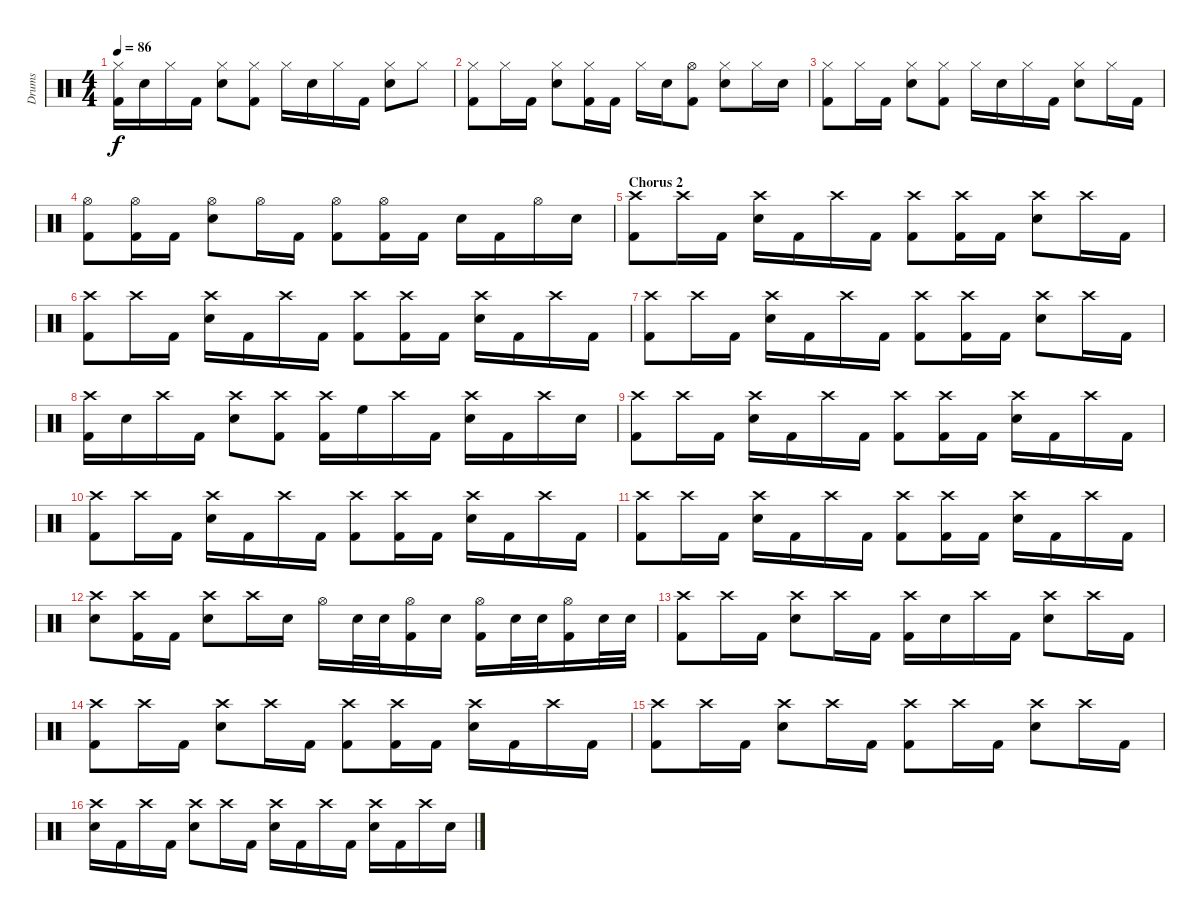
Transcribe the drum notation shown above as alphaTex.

\track ("Drums" "Drums") {instrument percussion}
\staff {score}
\articulation defaults
\ts (4 4)
\tempo 86
\clef neutral
\ks c
("Hi-Hat (closed)" "Kick (hit) 2").16{dy f} "Electric Snare (hit)".16 "Hi-Hat (closed)".16 "Kick (hit) 2".16 ("Hi-Hat (closed)" "Electric Snare (hit)").8 ("Hi-Hat (closed)" "Kick (hit) 2").8 "Hi-Hat (closed)".16 "Electric Snare (hit)".16 "Hi-Hat (closed)".16 "Kick (hit) 2".16 ("Hi-Hat (closed)" "Electric Snare (hit)").8 "Hi-Hat (closed)".8 |
("Hi-Hat (closed)" "Kick (hit) 2").8 "Hi-Hat (closed)".16 "Kick (hit) 2".16 ("Hi-Hat (closed)" "Electric Snare (hit)").8 ("Hi-Hat (closed)" "Kick (hit) 2").16 "Kick (hit) 2".16 "Hi-Hat (closed)".16 "Electric Snare (hit)".16 ("Hi-Hat (open)" "Kick (hit) 2").8 ("Hi-Hat (closed)" "Electric Snare (hit)").8 "Hi-Hat (closed)".16 "Electric Snare (hit)".16 |
("Hi-Hat (closed)" "Kick (hit) 2").8 "Hi-Hat (closed)".16 "Kick (hit) 2".16 ("Hi-Hat (closed)" "Electric Snare (hit)").8 ("Hi-Hat (closed)" "Kick (hit) 2").8 "Hi-Hat (closed)".16 "Electric Snare (hit)".16 "Hi-Hat (closed)".16 "Kick (hit) 2".16 ("Hi-Hat (closed)" "Electric Snare (hit)").8 "Hi-Hat (closed)".16 "Kick (hit) 2".16 |
("Hi-Hat (open)" "Kick (hit) 2").8 ("Hi-Hat (open)" "Kick (hit) 2").16 "Kick (hit) 2".16 ("Hi-Hat (open)" "Electric Snare (hit)").8 "Hi-Hat (open)".16 "Kick (hit) 2".16 ("Hi-Hat (open)" "Kick (hit) 2").8 ("Hi-Hat (open)" "Kick (hit) 2").16 "Kick (hit) 2".16 "Electric Snare (hit)".16 "Kick (hit) 2".16 "Hi-Hat (open)".16 "Electric Snare (hit)".16 |
\section ("" "Chorus 2")
("Crash high (hit)" "Kick (hit) 2").8 "Crash high (hit)".16 "Kick (hit) 2".16 ("Crash high (hit)" "Electric Snare (hit)").16 "Kick (hit) 2".16 "Crash high (hit)".16 "Kick (hit) 2".16 ("Crash high (hit)" "Kick (hit) 2").8 ("Crash high (hit)" "Kick (hit) 2").16 "Kick (hit) 2".16 ("Crash high (hit)" "Electric Snare (hit)").8 "Crash high (hit)".16 "Kick (hit) 2".16 |
("Crash high (hit)" "Kick (hit) 2").8 "Crash high (hit)".16 "Kick (hit) 2".16 ("Crash high (hit)" "Electric Snare (hit)").16 "Kick (hit) 2".16 "Crash high (hit)".16 "Kick (hit) 2".16 ("Crash high (hit)" "Kick (hit) 2").8 ("Crash high (hit)" "Kick (hit) 2").16 "Kick (hit) 2".16 ("Crash high (hit)" "Electric Snare (hit)").16 "Kick (hit) 2".16 "Crash high (hit)".16 "Kick (hit) 2".16 |
("Crash high (hit)" "Kick (hit) 2").8 "Crash high (hit)".16 "Kick (hit) 2".16 ("Crash high (hit)" "Electric Snare (hit)").16 "Kick (hit) 2".16 "Crash high (hit)".16 "Kick (hit) 2".16 ("Crash high (hit)" "Kick (hit) 2").8 ("Crash high (hit)" "Kick (hit) 2").16 "Kick (hit) 2".16 ("Crash high (hit)" "Electric Snare (hit)").8 "Crash high (hit)".16 "Kick (hit) 2".16 |
("Crash high (hit)" "Kick (hit) 2").16 "Electric Snare (hit)".16 "Crash high (hit)".16 "Kick (hit) 2".16 ("Crash high (hit)" "Electric Snare (hit)").8 ("Crash high (hit)" "Kick (hit) 2").8 ("Crash high (hit)" "Kick (hit) 2").16 "High Floor Tom (hit)".16 "Crash high (hit)".16 "Kick (hit) 2".16 ("Crash high (hit)" "Electric Snare (hit)").16 "Kick (hit) 2".16 "Crash high (hit)".16 "Electric Snare (hit)".16 |
("Crash high (hit)" "Kick (hit) 2").8 "Crash high (hit)".16 "Kick (hit) 2".16 ("Crash high (hit)" "Electric Snare (hit)").16 "Kick (hit) 2".16 "Crash high (hit)".16 "Kick (hit) 2".16 ("Crash high (hit)" "Kick (hit) 2").8 ("Crash high (hit)" "Kick (hit) 2").16 "Kick (hit) 2".16 ("Crash high (hit)" "Electric Snare (hit)").16 "Kick (hit) 2".16 "Crash high (hit)".16 "Kick (hit) 2".16 |
("Crash high (hit)" "Kick (hit) 2").8 "Crash high (hit)".16 "Kick (hit) 2".16 ("Crash high (hit)" "Electric Snare (hit)").16 "Kick (hit) 2".16 "Crash high (hit)".16 "Kick (hit) 2".16 ("Crash high (hit)" "Kick (hit) 2").8 ("Crash high (hit)" "Kick (hit) 2").16 "Kick (hit) 2".16 ("Crash high (hit)" "Electric Snare (hit)").16 "Kick (hit) 2".16 "Crash high (hit)".16 "Kick (hit) 2".16 |
("Crash high (hit)" "Kick (hit) 2").8 "Crash high (hit)".16 "Kick (hit) 2".16 ("Crash high (hit)" "Electric Snare (hit)").16 "Kick (hit) 2".16 "Crash high (hit)".16 "Kick (hit) 2".16 ("Crash high (hit)" "Kick (hit) 2").8 ("Crash high (hit)" "Kick (hit) 2").16 "Kick (hit) 2".16 ("Crash high (hit)" "Electric Snare (hit)").16 "Kick (hit) 2".16 "Crash high (hit)".16 "Kick (hit) 2".16 |
("Crash high (hit)" "Electric Snare (hit)").8 ("Crash high (hit)" "Kick (hit) 2").16 "Kick (hit) 2".16 ("Crash high (hit)" "Electric Snare (hit)").8 "Crash high (hit)".16 "Electric Snare (hit)".16 "Hi-Hat (open)".16 "Electric Snare (hit)".32 "Electric Snare (hit)".32 ("Hi-Hat (open)" "Kick (hit) 2").16 "Electric Snare (hit)".16 ("Hi-Hat (open)" "Kick (hit) 2").16 "Electric Snare (hit)".32 "Electric Snare (hit)".32 ("Hi-Hat (open)" "Kick (hit) 2").16 "Electric Snare (hit)".32 "Electric Snare (hit)".32 |
("Crash high (hit)" "Kick (hit) 2").8 "Crash high (hit)".16 "Kick (hit) 2".16 ("Crash high (hit)" "Electric Snare (hit)").8 "Crash high (hit)".16 "Kick (hit) 2".16 ("Crash high (hit)" "Kick (hit) 2").16 "Electric Snare (hit)".16 "Crash high (hit)".16 "Kick (hit) 2".16 ("Crash high (hit)" "Electric Snare (hit)").8 "Crash high (hit)".16 "Kick (hit) 2".16 |
("Crash high (hit)" "Kick (hit) 2").8 "Crash high (hit)".16 "Kick (hit) 2".16 ("Crash high (hit)" "Electric Snare (hit)").8 "Crash high (hit)".16 "Kick (hit) 2".16 ("Crash high (hit)" "Kick (hit) 2").8 ("Crash high (hit)" "Kick (hit) 2").16 "Kick (hit) 2".16 ("Crash high (hit)" "Electric Snare (hit)").16 "Kick (hit) 2".16 "Crash high (hit)".16 "Kick (hit) 2".16 |
("Crash high (hit)" "Kick (hit) 2").8 "Crash high (hit)".16 "Kick (hit) 2".16 ("Crash high (hit)" "Electric Snare (hit)").8 "Crash high (hit)".16 "Kick (hit) 2".16 ("Crash high (hit)" "Kick (hit) 2").8 "Crash high (hit)".16 "Kick (hit) 2".16 ("Crash high (hit)" "Electric Snare (hit)").8 "Crash high (hit)".16 "Kick (hit) 2".16 |
("Crash high (hit)" "Electric Snare (hit)").16 "Kick (hit) 2".16 "Crash high (hit)".16 "Kick (hit) 2".16 ("Crash high (hit)" "Electric Snare (hit)").8 "Crash high (hit)".16 "Kick (hit) 2".16 ("Crash high (hit)" "Electric Snare (hit)").16 "Kick (hit) 2".16 "Crash high (hit)".16 "Kick (hit) 2".16 ("Crash high (hit)" "Electric Snare (hit)").16 "Kick (hit) 2".16 "Crash high (hit)".16 "Electric Snare (hit)".16
